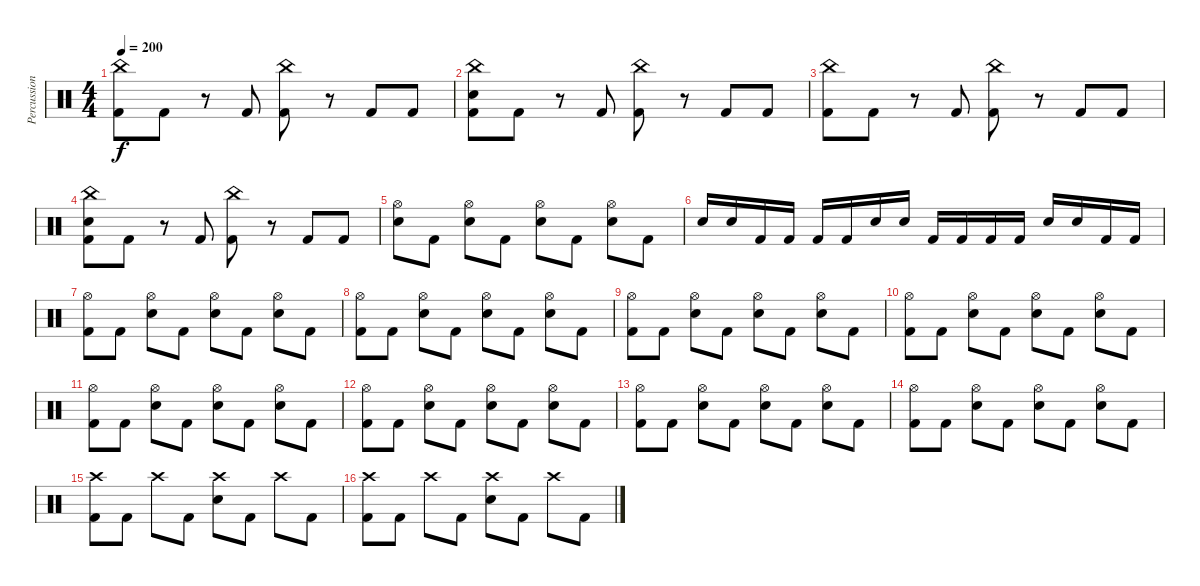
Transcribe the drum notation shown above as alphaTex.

\track ("Percussion" "Percussion") {instrument percussion}
\staff {score}
\articulation defaults
\ts (4 4)
\tempo 200
\clef neutral
\ks c
("China (hit)" "Kick (hit) 2").8{dy f} "Kick (hit) 2".8 r.8 "Kick (hit) 2".8 ("China (hit)" "Kick (hit) 2").8 r.8 "Kick (hit) 2".8 "Kick (hit) 2".8 |
("China (hit)" "Electric Snare (hit)" "Kick (hit) 2").8 "Kick (hit) 2".8 r.8 "Kick (hit) 2".8 ("China (hit)" "Kick (hit) 2").8 r.8 "Kick (hit) 2".8 "Kick (hit) 2".8 |
("China (hit)" "Kick (hit) 2").8 "Kick (hit) 2".8 r.8 "Kick (hit) 2".8 ("China (hit)" "Kick (hit) 2").8 r.8 "Kick (hit) 2".8 "Kick (hit) 2".8 |
("China (hit)" "Electric Snare (hit)" "Kick (hit) 2").8 "Kick (hit) 2".8 r.8 "Kick (hit) 2".8 ("China (hit)" "Kick (hit) 2").8 r.8 "Kick (hit) 2".8 "Kick (hit) 2".8 |
("Hi-Hat (open)" "Electric Snare (hit)").8 "Kick (hit) 2".8 ("Hi-Hat (open)" "Electric Snare (hit)").8 "Kick (hit) 2".8 ("Hi-Hat (open)" "Electric Snare (hit)").8 "Kick (hit) 2".8 ("Hi-Hat (open)" "Electric Snare (hit)").8 "Kick (hit) 2".8 |
"Electric Snare (hit)".16 "Electric Snare (hit)".16 "Kick (hit) 2".16 "Kick (hit) 2".16 "Kick (hit) 2".16 "Kick (hit) 2".16 "Electric Snare (hit)".16 "Electric Snare (hit)".16 "Kick (hit) 2".16 "Kick (hit) 2".16 "Kick (hit) 2".16 "Kick (hit) 2".16 "Electric Snare (hit)".16 "Electric Snare (hit)".16 "Kick (hit) 2".16 "Kick (hit) 2".16 |
("Hi-Hat (open)" "Kick (hit) 2").8 "Kick (hit) 2".8 ("Hi-Hat (open)" "Electric Snare (hit)").8 "Kick (hit) 2".8 ("Hi-Hat (open)" "Electric Snare (hit)").8 "Kick (hit) 2".8 ("Hi-Hat (open)" "Electric Snare (hit)").8 "Kick (hit) 2".8 |
("Hi-Hat (open)" "Kick (hit) 2").8 "Kick (hit) 2".8 ("Hi-Hat (open)" "Electric Snare (hit)").8 "Kick (hit) 2".8 ("Hi-Hat (open)" "Electric Snare (hit)").8 "Kick (hit) 2".8 ("Hi-Hat (open)" "Electric Snare (hit)").8 "Kick (hit) 2".8 |
("Hi-Hat (open)" "Kick (hit) 2").8 "Kick (hit) 2".8 ("Hi-Hat (open)" "Electric Snare (hit)").8 "Kick (hit) 2".8 ("Hi-Hat (open)" "Electric Snare (hit)").8 "Kick (hit) 2".8 ("Hi-Hat (open)" "Electric Snare (hit)").8 "Kick (hit) 2".8 |
("Hi-Hat (open)" "Kick (hit) 2").8 "Kick (hit) 2".8 ("Hi-Hat (open)" "Electric Snare (hit)").8 "Kick (hit) 2".8 ("Hi-Hat (open)" "Electric Snare (hit)").8 "Kick (hit) 2".8 ("Hi-Hat (open)" "Electric Snare (hit)").8 "Kick (hit) 2".8 |
("Hi-Hat (open)" "Kick (hit) 2").8 "Kick (hit) 2".8 ("Hi-Hat (open)" "Electric Snare (hit)").8 "Kick (hit) 2".8 ("Hi-Hat (open)" "Electric Snare (hit)").8 "Kick (hit) 2".8 ("Hi-Hat (open)" "Electric Snare (hit)").8 "Kick (hit) 2".8 |
("Hi-Hat (open)" "Kick (hit) 2").8 "Kick (hit) 2".8 ("Hi-Hat (open)" "Electric Snare (hit)").8 "Kick (hit) 2".8 ("Hi-Hat (open)" "Electric Snare (hit)").8 "Kick (hit) 2".8 ("Hi-Hat (open)" "Electric Snare (hit)").8 "Kick (hit) 2".8 |
("Hi-Hat (open)" "Kick (hit) 2").8 "Kick (hit) 2".8 ("Hi-Hat (open)" "Electric Snare (hit)").8 "Kick (hit) 2".8 ("Hi-Hat (open)" "Electric Snare (hit)").8 "Kick (hit) 2".8 ("Hi-Hat (open)" "Electric Snare (hit)").8 "Kick (hit) 2".8 |
("Hi-Hat (open)" "Kick (hit) 2").8 "Kick (hit) 2".8 ("Hi-Hat (open)" "Electric Snare (hit)").8 "Kick (hit) 2".8 ("Hi-Hat (open)" "Electric Snare (hit)").8 "Kick (hit) 2".8 ("Hi-Hat (open)" "Electric Snare (hit)").8 "Kick (hit) 2".8 |
("Crash high (hit)" "Kick (hit) 2").8 "Kick (hit) 2".8 "Crash high (hit)".8 "Kick (hit) 2".8 ("Crash high (hit)" "Electric Snare (hit)").8 "Kick (hit) 2".8 "Crash high (hit)".8 "Kick (hit) 2".8 |
("Crash high (hit)" "Kick (hit) 2").8 "Kick (hit) 2".8 "Crash high (hit)".8 "Kick (hit) 2".8 ("Crash high (hit)" "Electric Snare (hit)").8 "Kick (hit) 2".8 "Crash high (hit)".8 "Kick (hit) 2".8
